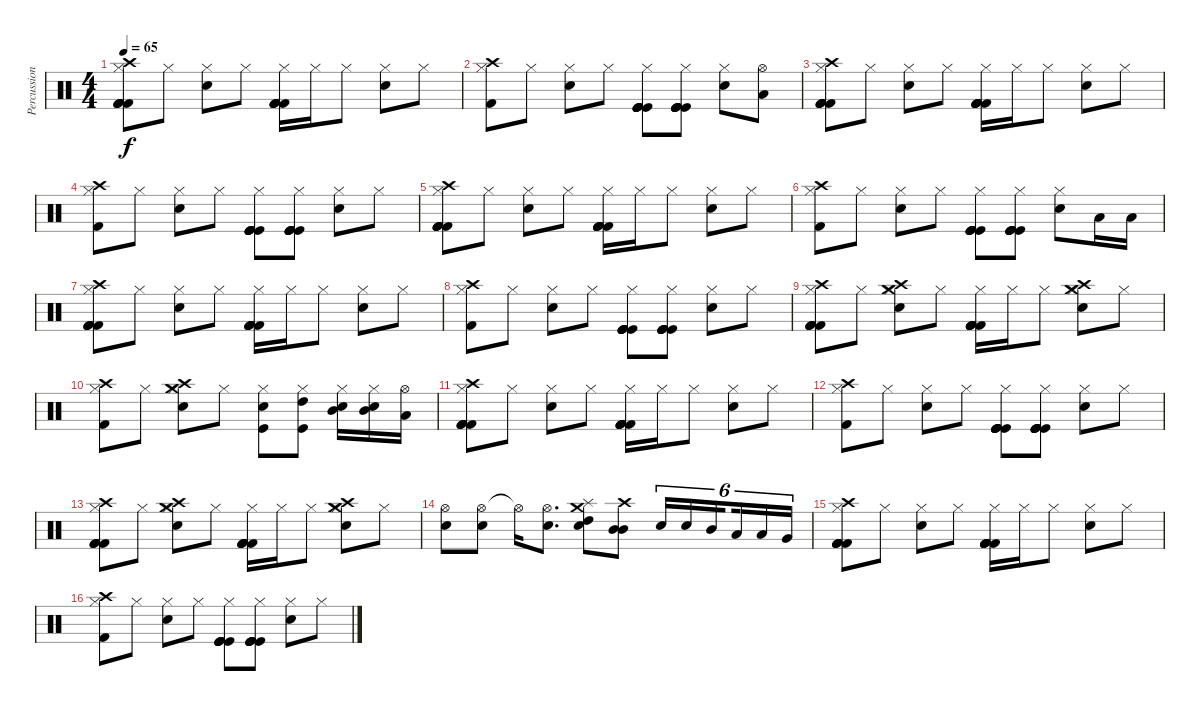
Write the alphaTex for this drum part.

\track ("Percussion" "Percussion") {instrument percussion}
\staff {score}
\articulation defaults
\ts (4 4)
\tempo 65
\clef neutral
\ks c
("Kick (hit) 2" "Hi-Hat (closed)" "Crash high (hit)" "Kick (hit) 2" "Kick (hit) 2" "Kick (hit) 2").8{dy f} "Hi-Hat (closed)".8 ("Hi-Hat (closed)" "Snare (hit) 2").8 "Hi-Hat (closed)".8 ("Hi-Hat (closed)" "Kick (hit) 2" "Kick (hit) 2" "Kick (hit) 2" "Kick (hit) 2" "Kick (hit) 2").16 "Hi-Hat (closed)".16 "Hi-Hat (closed)".8 ("Hi-Hat (closed)" "Snare (hit) 2").8 "Hi-Hat (closed)".8 |
("Hi-Hat (closed)" "Kick (hit) 2" "Crash high (hit)").8 "Hi-Hat (closed)".8 ("Hi-Hat (closed)" "Snare (hit) 2").8 "Hi-Hat (closed)".8 ("Hi-Hat (closed)" "Kick (hit)" "Kick (hit)" "Kick (hit)" "Kick (hit)" "Kick (hit)").8 ("Hi-Hat (closed)" "Kick (hit)" "Kick (hit)" "Kick (hit)" "Kick (hit)" "Kick (hit)").8 ("Hi-Hat (closed)" "Snare (hit) 2").8 ("Hi-Hat (open)" "Low Tom (hit)").8 |
("Kick (hit) 2" "Hi-Hat (closed)" "Crash high (hit)" "Kick (hit) 2" "Kick (hit) 2" "Kick (hit) 2").8 "Hi-Hat (closed)".8 ("Hi-Hat (closed)" "Snare (hit) 2").8 "Hi-Hat (closed)".8 ("Hi-Hat (closed)" "Kick (hit) 2" "Kick (hit) 2" "Kick (hit) 2" "Kick (hit) 2" "Kick (hit) 2").16 "Hi-Hat (closed)".16 "Hi-Hat (closed)".8 ("Hi-Hat (closed)" "Snare (hit) 2").8 "Hi-Hat (closed)".8 |
("Hi-Hat (closed)" "Kick (hit) 2" "Crash high (hit)").8 "Hi-Hat (closed)".8 ("Hi-Hat (closed)" "Snare (hit) 2").8 "Hi-Hat (closed)".8 ("Hi-Hat (closed)" "Kick (hit)" "Kick (hit)" "Kick (hit)" "Kick (hit)" "Kick (hit)").8 ("Hi-Hat (closed)" "Kick (hit)" "Kick (hit)" "Kick (hit)" "Kick (hit)" "Kick (hit)").8 ("Hi-Hat (closed)" "Snare (hit) 2").8 "Hi-Hat (closed)".8 |
("Kick (hit) 2" "Hi-Hat (closed)" "Crash high (hit)" "Kick (hit) 2" "Kick (hit) 2" "Kick (hit) 2").8 "Hi-Hat (closed)".8 ("Hi-Hat (closed)" "Snare (hit) 2").8 "Hi-Hat (closed)".8 ("Hi-Hat (closed)" "Kick (hit) 2" "Kick (hit) 2" "Kick (hit) 2" "Kick (hit) 2" "Kick (hit) 2").16 "Hi-Hat (closed)".16 "Hi-Hat (closed)".8 ("Hi-Hat (closed)" "Snare (hit) 2").8 "Hi-Hat (closed)".8 |
("Hi-Hat (closed)" "Kick (hit) 2" "Crash high (hit)").8 "Hi-Hat (closed)".8 ("Hi-Hat (closed)" "Snare (hit) 2").8 "Hi-Hat (closed)".8 ("Hi-Hat (closed)" "Kick (hit)" "Kick (hit)" "Kick (hit)" "Kick (hit)" "Kick (hit)").8 ("Hi-Hat (closed)" "Kick (hit)" "Kick (hit)" "Kick (hit)" "Kick (hit)" "Kick (hit)").8 ("Hi-Hat (closed)" "Snare (hit) 2").8 "Low Tom (hit)".16 "Low Tom (hit)".16 |
("Kick (hit) 2" "Hi-Hat (closed)" "Crash high (hit)" "Kick (hit) 2" "Kick (hit) 2" "Kick (hit) 2").8 "Hi-Hat (closed)".8 ("Hi-Hat (closed)" "Snare (hit) 2").8 "Hi-Hat (closed)".8 ("Hi-Hat (closed)" "Kick (hit) 2" "Kick (hit) 2" "Kick (hit) 2" "Kick (hit) 2" "Kick (hit) 2").16 "Hi-Hat (closed)".16 "Hi-Hat (closed)".8 ("Hi-Hat (closed)" "Snare (hit) 2").8 "Hi-Hat (closed)".8 |
("Hi-Hat (closed)" "Kick (hit) 2" "Crash high (hit)").8 "Hi-Hat (closed)".8 ("Hi-Hat (closed)" "Snare (hit) 2").8 "Hi-Hat (closed)".8 ("Hi-Hat (closed)" "Kick (hit)" "Kick (hit)" "Kick (hit)" "Kick (hit)" "Kick (hit)").8 ("Hi-Hat (closed)" "Kick (hit)" "Kick (hit)" "Kick (hit)" "Kick (hit)" "Kick (hit)").8 ("Hi-Hat (closed)" "Snare (hit) 2").8 "Hi-Hat (closed)".8 |
("Kick (hit) 2" "Hi-Hat (closed)" "Crash high (hit)" "Kick (hit) 2" "Kick (hit) 2" "Kick (hit) 2").8 "Hi-Hat (closed)".8 ("Hi-Hat (closed)" "Snare (hit) 2" "Crash medium (hit)" "Crash high (hit)").8 "Hi-Hat (closed)".8 ("Hi-Hat (closed)" "Kick (hit) 2" "Kick (hit) 2" "Kick (hit) 2" "Kick (hit) 2" "Kick (hit) 2").16 "Hi-Hat (closed)".16 "Hi-Hat (closed)".8 ("Hi-Hat (closed)" "Snare (hit) 2" "Crash high (hit)" "Crash medium (hit)").8 "Hi-Hat (closed)".8 |
("Hi-Hat (closed)" "Kick (hit) 2" "Crash high (hit)").8 "Hi-Hat (closed)".8 ("Hi-Hat (closed)" "Snare (hit) 2" "Crash high (hit)" "Crash medium (hit)").8 "Hi-Hat (closed)".8 ("Hi-Hat (closed)" "Snare (hit) 2" "Kick (hit)").8 ("Hi-Hat (closed)" "High Tom (hit)" "Kick (hit)").8 ("Hi-Hat (closed)" "Snare (hit) 2" "Mid Tom (hit)").16 ("Hi-Hat (closed)" "Snare (hit) 2" "Mid Tom (hit)").16 ("Low Tom (hit)" "Hi-Hat (open)").16 |
("Kick (hit) 2" "Hi-Hat (closed)" "Crash high (hit)" "Kick (hit) 2" "Kick (hit) 2" "Kick (hit) 2").8 "Hi-Hat (closed)".8 ("Hi-Hat (closed)" "Snare (hit) 2").8 "Hi-Hat (closed)".8 ("Hi-Hat (closed)" "Kick (hit) 2" "Kick (hit) 2" "Kick (hit) 2" "Kick (hit) 2" "Kick (hit) 2").16 "Hi-Hat (closed)".16 "Hi-Hat (closed)".8 ("Hi-Hat (closed)" "Snare (hit) 2").8 "Hi-Hat (closed)".8 |
("Hi-Hat (closed)" "Kick (hit) 2" "Crash high (hit)").8 "Hi-Hat (closed)".8 ("Hi-Hat (closed)" "Snare (hit) 2").8 "Hi-Hat (closed)".8 ("Hi-Hat (closed)" "Kick (hit)" "Kick (hit)" "Kick (hit)" "Kick (hit)" "Kick (hit)").8 ("Hi-Hat (closed)" "Kick (hit)" "Kick (hit)" "Kick (hit)" "Kick (hit)" "Kick (hit)").8 ("Hi-Hat (closed)" "Snare (hit) 2").8 "Hi-Hat (closed)".8 |
("Kick (hit) 2" "Hi-Hat (closed)" "Crash high (hit)" "Kick (hit) 2" "Kick (hit) 2" "Kick (hit) 2").8 "Hi-Hat (closed)".8 ("Hi-Hat (closed)" "Snare (hit) 2" "Crash high (hit)" "Crash medium (hit)").8 "Hi-Hat (closed)".8 ("Hi-Hat (closed)" "Kick (hit) 2" "Kick (hit) 2" "Kick (hit) 2" "Kick (hit) 2" "Kick (hit) 2").16 "Hi-Hat (closed)".16 "Hi-Hat (closed)".8 ("Hi-Hat (closed)" "Snare (hit) 2" "Crash medium (hit)" "Crash high (hit)").8 "Hi-Hat (closed)".8 |
("Hi-Hat (open)" "Snare (hit) 2").8 ("Hi-Hat (open)" "Snare (hit) 2").8 "Hi-Hat (open)"{t}.16 ("Hi-Hat (open)" "Snare (hit) 2").8{d} ("Splash (hit)" "Snare (hit) 2" "Crash medium (hit)" "High Tom (hit)").8 ("Crash high (hit)" "Mid Tom (hit)" "Mid Tom (hit)").8 "Snare (hit) 2".16{tu (6 4)} "Snare (hit) 2".16{tu (6 4)} "Mid Tom (hit)".16{tu (6 4) beam splitsecondary} "Low Tom (hit)".16{tu (6 4)} "Low Tom (hit)".16{tu (6 4)} "Very Low Tom (hit)".16{tu (6 4)} |
("Kick (hit) 2" "Hi-Hat (closed)" "Crash high (hit)" "Kick (hit) 2" "Kick (hit) 2" "Kick (hit) 2").8 "Hi-Hat (closed)".8 ("Hi-Hat (closed)" "Snare (hit) 2").8 "Hi-Hat (closed)".8 ("Hi-Hat (closed)" "Kick (hit) 2" "Kick (hit) 2" "Kick (hit) 2" "Kick (hit) 2" "Kick (hit) 2").16 "Hi-Hat (closed)".16 "Hi-Hat (closed)".8 ("Hi-Hat (closed)" "Snare (hit) 2").8 "Hi-Hat (closed)".8 |
("Hi-Hat (closed)" "Kick (hit) 2" "Crash high (hit)").8 "Hi-Hat (closed)".8 ("Hi-Hat (closed)" "Snare (hit) 2").8 "Hi-Hat (closed)".8 ("Hi-Hat (closed)" "Kick (hit)" "Kick (hit)" "Kick (hit)" "Kick (hit)" "Kick (hit)").8 ("Hi-Hat (closed)" "Kick (hit)" "Kick (hit)" "Kick (hit)" "Kick (hit)" "Kick (hit)").8 ("Hi-Hat (closed)" "Snare (hit) 2").8 "Hi-Hat (closed)".8
